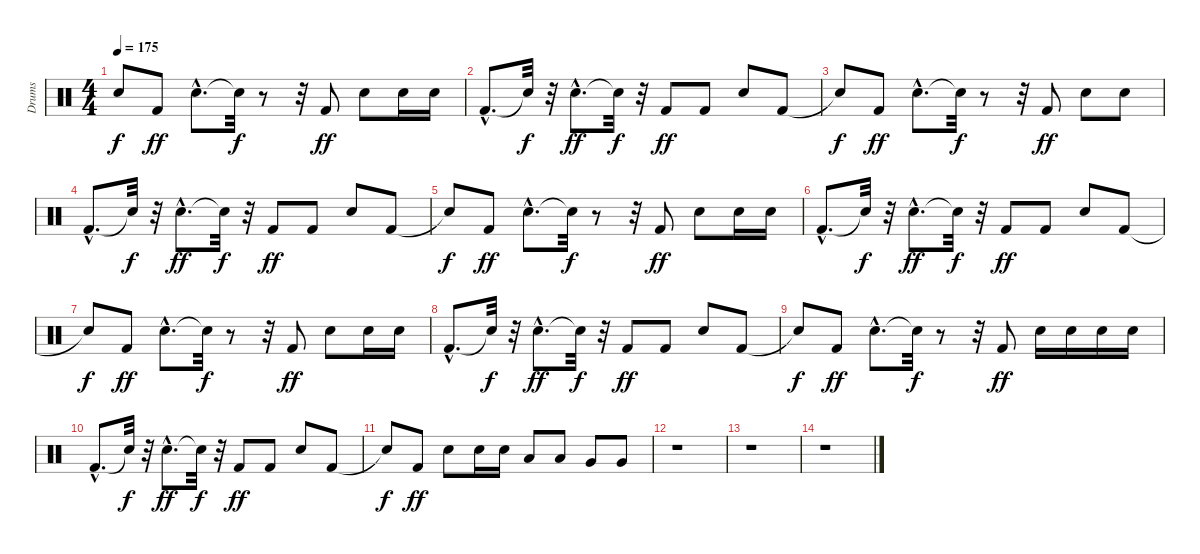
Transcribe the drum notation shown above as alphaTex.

\track ("Drums" "Drums") {instrument percussion}
\staff {score}
\articulation defaults
\ts (4 4)
\tempo 175
\clef neutral
\ks c "Snare (hit)"{t}.8{dy f} "Kick (hit) 2".8{dy ff} "Electric Snare (hit)"{hac}.8{d} "Snare (hit)"{t}.32{dy f}
r.8 r.32 "Kick (hit) 2".8{dy ff} "Electric Snare (hit)".8 "Electric Snare (hit)".16 "Electric Snare (hit)".16 |
"Kick (hit) 2"{hac}.8{d} "Snare (hit)"{t}.32{dy f} r.32 "Electric Snare (hit)"{hac}.8{d dy ff} "Snare (hit)"{t}.32{dy f} r.32 "Kick (hit) 2".8{dy ff} "Kick (hit) 2".8 "Electric Snare (hit)".8 "Kick (hit) 2".8 |
"Snare (hit)"{t}.8{dy f} "Kick (hit) 2".8{dy ff} "Electric Snare (hit)"{hac}.8{d} "Snare (hit)"{t}.32{dy f} r.8 r.32 "Kick (hit) 2".8{dy ff} "Electric Snare (hit)".8 "Electric Snare (hit)".8 |
"Kick (hit) 2"{hac}.8{d} "Snare (hit)"{t}.32{dy f} r.32 "Electric Snare (hit)"{hac}.8{d dy ff} "Snare (hit)"{t}.32{dy f} r.32 "Kick (hit) 2".8{dy ff} "Kick (hit) 2".8 "Electric Snare (hit)".8 "Kick (hit) 2".8 |
"Snare (hit)"{t}.8{dy f} "Kick (hit) 2".8{dy ff} "Electric Snare (hit)"{hac}.8{d} "Snare (hit)"{t}.32{dy f} r.8 r.32 "Kick (hit) 2".8{dy ff} "Electric Snare (hit)".8 "Electric Snare (hit)".16 "Electric Snare (hit)".16 |
"Kick (hit) 2"{hac}.8{d} "Snare (hit)"{t}.32{dy f} r.32 "Electric Snare (hit)"{hac}.8{d dy ff} "Snare (hit)"{t}.32{dy f} r.32 "Kick (hit) 2".8{dy ff} "Kick (hit) 2".8 "Electric Snare (hit)".8 "Kick (hit) 2".8 |
"Snare (hit)"{t}.8{dy f} "Kick (hit) 2".8{dy ff} "Electric Snare (hit)"{hac}.8{d} "Snare (hit)"{t}.32{dy f} r.8 r.32 "Kick (hit) 2".8{dy ff} "Electric Snare (hit)".8 "Electric Snare (hit)".16 "Electric Snare (hit)".16 |
"Kick (hit) 2"{hac}.8{d} "Snare (hit)"{t}.32{dy f} r.32 "Electric Snare (hit)"{hac}.8{d dy ff} "Snare (hit)"{t}.32{dy f} r.32 "Kick (hit) 2".8{dy ff} "Kick (hit) 2".8 "Electric Snare (hit)".8 "Kick (hit) 2".8 |
"Snare (hit)"{t}.8{dy f} "Kick (hit) 2".8{dy ff} "Electric Snare (hit)"{hac}.8{d} "Snare (hit)"{t}.32{dy f} r.8 r.32 "Kick (hit) 2".8{dy ff} "Electric Snare (hit)".16 "Electric Snare (hit)".16 "Electric Snare (hit)".16 "Electric Snare (hit)".16 |
"Kick (hit) 2"{hac}.8{d} "Snare (hit)"{t}.32{dy f} r.32 "Electric Snare (hit)"{hac}.8{d dy ff} "Snare (hit)"{t}.32{dy f} r.32 "Kick (hit) 2".8{dy ff} "Kick (hit) 2".8 "Electric Snare (hit)".8 "Kick (hit) 2".8 |
"Snare (hit)"{t}.8{dy f} "Kick (hit) 2".8{dy ff} "Electric Snare (hit)".8 "Electric Snare (hit)".16 "Electric Snare (hit)".16 "Low Tom (hit)".8 "Low Tom (hit)".8 "Very Low Tom (hit)".8 "Very Low Tom (hit)".8 |
r.1 |
r.1 |
r.1
